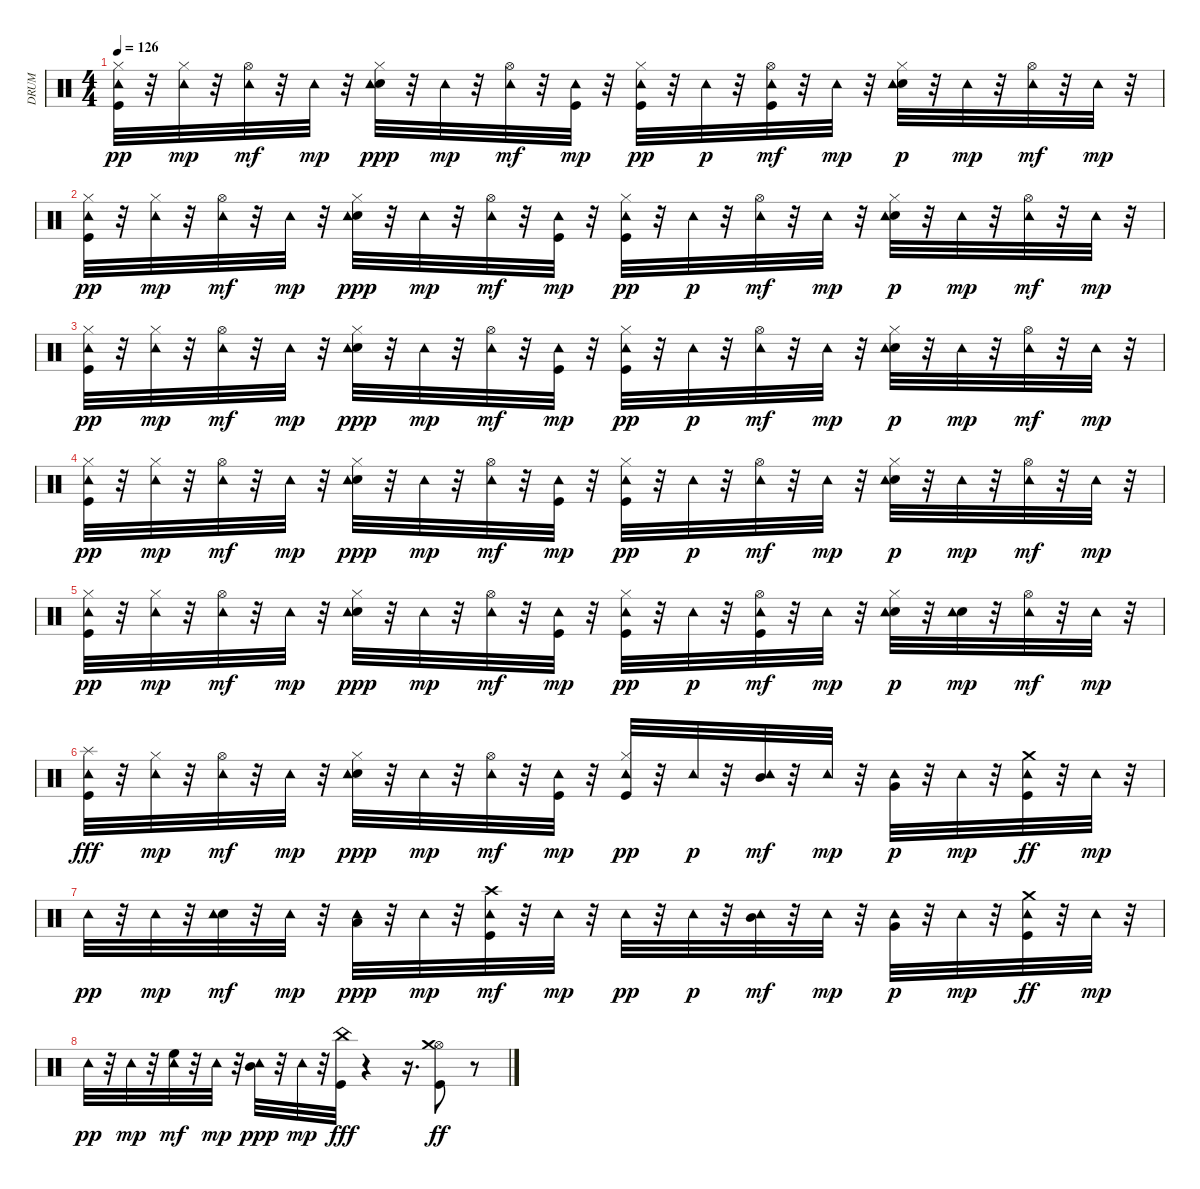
\track ("DRUM" "DRUM") {instrument percussion}
\staff {score}
\articulation defaults
\ts (4 4)
\tempo 126
\clef neutral
\ks c
("Kick (hit)" "Hi-Hat (closed)" "Tambourine (hit)").32{dy pp} r.32 ("Hi-Hat (closed)" "Tambourine (hit)").32{dy mp} r.32 ("Hi-Hat (open)" "Tambourine (hit)").32{dy mf} r.32 "Tambourine (hit)".32{dy mp} r.32 ("Electric Snare (hit)" "Hi-Hat (closed)" "Tambourine (hit)").32{dy ppp} r.32 "Tambourine (hit)".32{dy mp} r.32 ("Hi-Hat (open)" "Tambourine (hit)").32{dy mf} r.32 ("Kick (hit)" "Tambourine (hit)").32{dy mp} r.32 ("Kick (hit)" "Hi-Hat (closed)" "Tambourine (hit)").32{dy pp} r.32 "Tambourine (hit)".32{dy p} r.32 ("Kick (hit)" "Hi-Hat (open)" "Tambourine (hit)").32{dy mf} r.32 "Tambourine (hit)".32{dy mp} r.32 ("Electric Snare (hit)" "Hi-Hat (closed)" "Tambourine (hit)").32{dy p} r.32 "Tambourine (hit)".32{dy mp} r.32 ("Hi-Hat (open)" "Tambourine (hit)").32{dy mf} r.32 "Tambourine (hit)".32{dy mp} r.32 |
("Kick (hit)" "Hi-Hat (closed)" "Tambourine (hit)").32{dy pp} r.32 ("Hi-Hat (closed)" "Tambourine (hit)").32{dy mp} r.32 ("Hi-Hat (open)" "Tambourine (hit)").32{dy mf} r.32 "Tambourine (hit)".32{dy mp} r.32 ("Electric Snare (hit)" "Hi-Hat (closed)" "Tambourine (hit)").32{dy ppp} r.32 "Tambourine (hit)".32{dy mp} r.32 ("Hi-Hat (open)" "Tambourine (hit)").32{dy mf} r.32 ("Kick (hit)" "Tambourine (hit)").32{dy mp} r.32 ("Kick (hit)" "Hi-Hat (closed)" "Tambourine (hit)").32{dy pp} r.32 "Tambourine (hit)".32{dy p} r.32 ("Hi-Hat (open)" "Tambourine (hit)").32{dy mf} r.32 "Tambourine (hit)".32{dy mp} r.32 ("Electric Snare (hit)" "Hi-Hat (closed)" "Tambourine (hit)").32{dy p} r.32 "Tambourine (hit)".32{dy mp} r.32 ("Hi-Hat (open)" "Tambourine (hit)").32{dy mf} r.32 "Tambourine (hit)".32{dy mp} r.32 |
("Kick (hit)" "Hi-Hat (closed)" "Tambourine (hit)").32{dy pp} r.32 ("Hi-Hat (closed)" "Tambourine (hit)").32{dy mp} r.32 ("Hi-Hat (open)" "Tambourine (hit)").32{dy mf} r.32 "Tambourine (hit)".32{dy mp} r.32 ("Electric Snare (hit)" "Hi-Hat (closed)" "Tambourine (hit)").32{dy ppp} r.32 "Tambourine (hit)".32{dy mp} r.32 ("Hi-Hat (open)" "Tambourine (hit)").32{dy mf} r.32 ("Kick (hit)" "Tambourine (hit)").32{dy mp} r.32 ("Kick (hit)" "Hi-Hat (closed)" "Tambourine (hit)").32{dy pp} r.32 "Tambourine (hit)".32{dy p} r.32 ("Hi-Hat (open)" "Tambourine (hit)").32{dy mf} r.32 "Tambourine (hit)".32{dy mp} r.32 ("Electric Snare (hit)" "Hi-Hat (closed)" "Tambourine (hit)").32{dy p} r.32 "Tambourine (hit)".32{dy mp} r.32 ("Hi-Hat (open)" "Tambourine (hit)").32{dy mf} r.32 "Tambourine (hit)".32{dy mp} r.32 |
("Kick (hit)" "Hi-Hat (closed)" "Tambourine (hit)").32{dy pp} r.32 ("Hi-Hat (closed)" "Tambourine (hit)").32{dy mp} r.32 ("Hi-Hat (open)" "Tambourine (hit)").32{dy mf} r.32 "Tambourine (hit)".32{dy mp} r.32 ("Electric Snare (hit)" "Hi-Hat (closed)" "Tambourine (hit)").32{dy ppp} r.32 "Tambourine (hit)".32{dy mp} r.32 ("Hi-Hat (open)" "Tambourine (hit)").32{dy mf} r.32 ("Kick (hit)" "Tambourine (hit)").32{dy mp} r.32 ("Kick (hit)" "Hi-Hat (closed)" "Tambourine (hit)").32{dy pp} r.32 "Tambourine (hit)".32{dy p} r.32 ("Hi-Hat (open)" "Tambourine (hit)").32{dy mf} r.32 "Tambourine (hit)".32{dy mp} r.32 ("Electric Snare (hit)" "Hi-Hat (closed)" "Tambourine (hit)").32{dy p} r.32 "Tambourine (hit)".32{dy mp} r.32 ("Hi-Hat (open)" "Tambourine (hit)").32{dy mf} r.32 "Tambourine (hit)".32{dy mp} r.32 |
("Kick (hit)" "Hi-Hat (closed)" "Tambourine (hit)").32{dy pp} r.32 ("Hi-Hat (closed)" "Tambourine (hit)").32{dy mp} r.32 ("Hi-Hat (open)" "Tambourine (hit)").32{dy mf} r.32 "Tambourine (hit)".32{dy mp} r.32 ("Electric Snare (hit)" "Hi-Hat (closed)" "Tambourine (hit)").32{dy ppp} r.32 "Tambourine (hit)".32{dy mp} r.32 ("Hi-Hat (open)" "Tambourine (hit)").32{dy mf} r.32 ("Kick (hit)" "Tambourine (hit)").32{dy mp} r.32 ("Kick (hit)" "Hi-Hat (closed)" "Tambourine (hit)").32{dy pp} r.32 "Tambourine (hit)".32{dy p} r.32 ("Kick (hit)" "Hi-Hat (open)" "Tambourine (hit)").32{dy mf} r.32 "Tambourine (hit)".32{dy mp} r.32 ("Electric Snare (hit)" "Hi-Hat (closed)" "Tambourine (hit)").32{dy p} r.32 ("Electric Snare (hit)" "Tambourine (hit)").32{dy mp} r.32 ("Hi-Hat (open)" "Tambourine (hit)").32{dy mf} r.32 "Tambourine (hit)".32{dy mp} r.32 |
("Kick (hit)" "Tambourine (hit)" "Splash (hit)").32{dy fff} r.32 ("Hi-Hat (closed)" "Tambourine (hit)").32{dy mp} r.32 ("Hi-Hat (open)" "Tambourine (hit)").32{dy mf} r.32 "Tambourine (hit)".32{dy mp} r.32 ("Electric Snare (hit)" "Hi-Hat (closed)" "Tambourine (hit)").32{dy ppp} r.32 "Tambourine (hit)".32{dy mp} r.32 ("Hi-Hat (open)" "Tambourine (hit)").32{dy mf} r.32 ("Kick (hit)" "Tambourine (hit)").32{dy mp} r.32 ("Kick (hit)" "Hi-Hat (closed)" "Tambourine (hit)").32{dy pp} r.32 "Tambourine (hit)".32{dy p} r.32 ("Mid Tom (hit)" "Tambourine (hit)").32{dy mf} r.32 "Tambourine (hit)".32{dy mp} r.32 ("Very Low Tom (hit)" "Tambourine (hit)").32{dy p} r.32 "Tambourine (hit)".32{dy mp} r.32 ("Kick (hit)" "Tambourine (hit)" "Crash medium (hit)").32{dy ff} r.32 "Tambourine (hit)".32{dy mp} r.32 |
"Tambourine (hit)".32{dy pp} r.32 "Tambourine (hit)".32{dy mp} r.32 ("Electric Snare (hit)" "Tambourine (hit)").32{dy mf} r.32 "Tambourine (hit)".32{dy mp} r.32 ("Low Tom (hit)" "Tambourine (hit)").32{dy ppp} r.32 "Tambourine (hit)".32{dy mp} r.32 ("Kick (hit)" "Crash high (hit)" "Tambourine (hit)").32{dy mf} r.32 "Tambourine (hit)".32{dy mp} r.32 "Tambourine (hit)".32{dy pp} r.32 "Tambourine (hit)".32{dy p} r.32 ("Mid Tom (hit)" "Tambourine (hit)").32{dy mf} r.32 "Tambourine (hit)".32{dy mp} r.32 ("Very Low Tom (hit)" "Tambourine (hit)").32{dy p} r.32 "Tambourine (hit)".32{dy mp} r.32 ("Kick (hit)" "Tambourine (hit)" "Crash medium (hit)").32{dy ff} r.32 "Tambourine (hit)".32{dy mp} r.32 |
"Tambourine (hit)".32{dy pp} r.32 "Tambourine (hit)".32{dy mp} r.32 ("High Floor Tom (hit)" "Tambourine (hit)").32{dy mf} r.32 "Tambourine (hit)".32{dy mp} r.32 ("Mid Tom (hit)" "Tambourine (hit)").32{dy ppp} r.32 "Tambourine (hit)".32{dy mp} r.32 ("Kick (hit)" "China (hit)").32{dy fff} r.4 r.16{d} ("Kick (hit)" "Hi-Hat (open)" "Crash medium (hit)").8{dy ff} r.8
